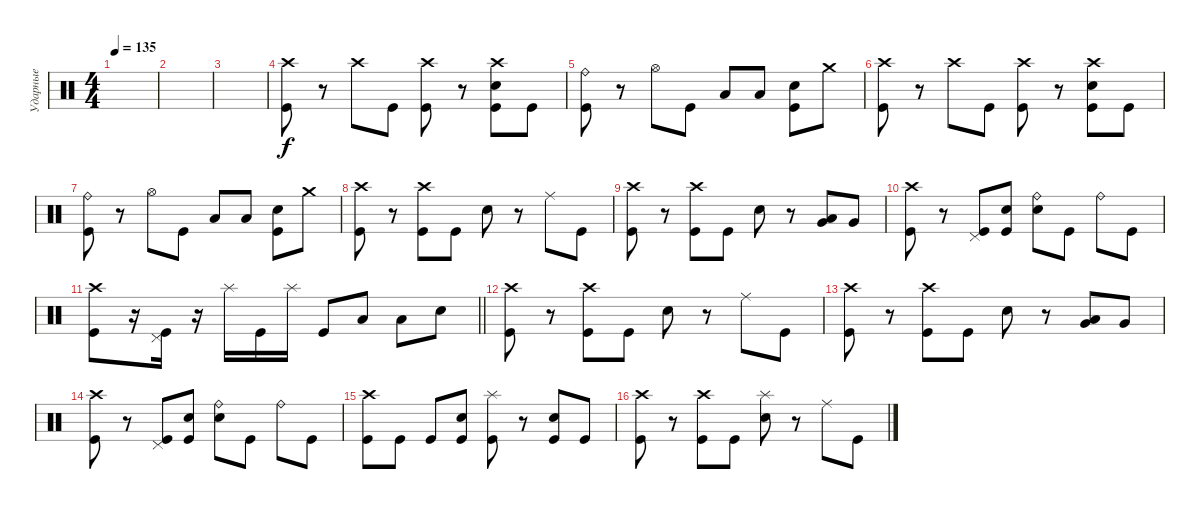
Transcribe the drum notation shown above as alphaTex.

\track ("Ударные" "Ударные") {instrument percussion}
\staff {score}
\articulation defaults
\ts (4 4)
\tempo 135
\clef neutral
\ks c
|
|
|
("Crash high (hit)" "Kick (hit)").8 r.8 "Crash high (hit)".8 "Kick (hit)".8 ("Crash high (hit)" "Kick (hit)").8 r.8 ("Crash high (hit)" "Electric Snare (hit)" "Kick (hit)").8 "Kick (hit)".8 |
("Ride (bell)" "Kick (hit)").8 r.8 "Hi-Hat (open)".8 "Kick (hit)".8 "Low Tom (hit)".8 "Low Tom (hit)".8 ("Electric Snare (hit)" "Kick (hit)").8 "Crash medium (hit)".8 |
("Crash high (hit)" "Kick (hit)").8 r.8 "Crash high (hit)".8 "Kick (hit)".8 ("Crash high (hit)" "Kick (hit)").8 r.8 ("Crash high (hit)" "Electric Snare (hit)" "Kick (hit)").8 "Kick (hit)".8 |
("Ride (bell)" "Kick (hit)").8 r.8 "Hi-Hat (open)".8 "Kick (hit)".8 "Low Tom (hit)".8 "Low Tom (hit)".8 ("Electric Snare (hit)" "Kick (hit)").8 "Crash medium (hit)".8 |
("Crash high (hit)" "Kick (hit)").8 r.8 ("Crash high (hit)" "Kick (hit)").8 "Kick (hit)".8 "Electric Snare (hit)".8 r.8 "Ride (middle)".8 "Kick (hit)".8 |
("Crash high (hit)" "Kick (hit)").8 r.8 ("Crash high (hit)" "Kick (hit)").8 "Kick (hit)".8 "Electric Snare (hit)".8 r.8 ("Very Low Tom (hit)" "Low Floor Tom (hit)").8 "Very Low Tom (hit)".8 |
("Crash high (hit)" "Kick (hit)").8 r.8 ("Pedal Hi-Hat (hit)" "Kick (hit)").8 ("Electric Snare (hit)" "Kick (hit)").8 ("Ride (bell)" "Electric Snare (hit)").8 "Kick (hit)".8 "Ride (bell)".8 "Kick (hit)".8 |
\barLineRight lightlight
("Crash high (hit)" "Kick (hit)").8 r.16 ("Pedal Hi-Hat (hit)" "Kick (hit)").16 r.16 "Splash (hit)".16 "Kick (hit)".16 "Splash (hit)".16 "Kick (hit)".8 "Low Tom (hit)".8 "Low Tom (hit)".8 "Electric Snare (hit)".8 |
\section ("" " ")
("Crash high (hit)" "Kick (hit)").8 r.8 ("Crash high (hit)" "Kick (hit)").8 "Kick (hit)".8 "Electric Snare (hit)".8 r.8 "Ride (middle)".8 "Kick (hit)".8 |
("Crash high (hit)" "Kick (hit)").8 r.8 ("Crash high (hit)" "Kick (hit)").8 "Kick (hit)".8 "Electric Snare (hit)".8 r.8 ("Very Low Tom (hit)" "Low Floor Tom (hit)").8 "Very Low Tom (hit)".8 |
("Crash high (hit)" "Kick (hit)").8 r.8 ("Pedal Hi-Hat (hit)" "Kick (hit)").8 ("Electric Snare (hit)" "Kick (hit)").8 ("Ride (bell)" "Electric Snare (hit)").8 "Kick (hit)".8 "Ride (bell)".8 "Kick (hit)".8 |
("Crash high (hit)" "Kick (hit)").8 "Kick (hit)".8 "Kick (hit)".8 ("Electric Snare (hit)" "Kick (hit)").8 ("Splash (hit)" "Kick (hit)").8 r.8 ("Electric Snare (hit)" "Kick (hit)").8 "Kick (hit)".8 |
("Crash high (hit)" "Kick (hit)").8 r.8 ("Crash high (hit)" "Kick (hit)").8 "Kick (hit)".8 ("Splash (hit)" "Electric Snare (hit)").8 r.8 "Ride (middle)".8 "Kick (hit)".8
